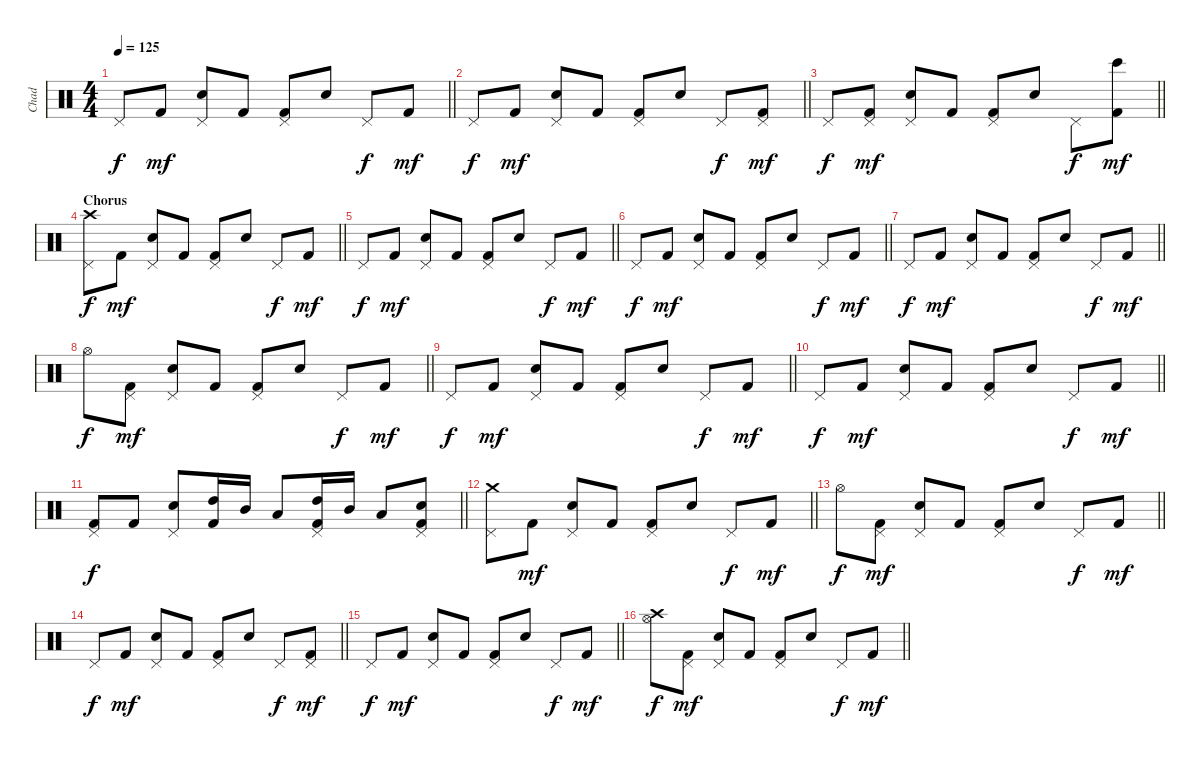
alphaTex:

\track ("Chad" "Chad") {instrument percussion}
\staff {score}
\articulation defaults
\ts (4 4)
\tempo 125
\clef neutral
\barLineRight lightlight
\ks c "Pedal Hi-Hat (hit)".8{dy f} "Kick (hit) 2".8{dy mf}
("Electric Snare (hit)" "Pedal Hi-Hat (hit)").8 "Kick (hit) 2".8 ("Kick (hit) 2" "Pedal Hi-Hat (hit)").8 "Electric Snare (hit)".8 "Pedal Hi-Hat (hit)".8{dy f} "Kick (hit) 2".8{dy mf} |
\barLineRight lightlight "Pedal Hi-Hat (hit)".8{dy f} "Kick (hit) 2".8{dy mf}
("Electric Snare (hit)" "Pedal Hi-Hat (hit)").8 "Kick (hit) 2".8 ("Kick (hit) 2" "Pedal Hi-Hat (hit)").8 "Electric Snare (hit)".8 "Pedal Hi-Hat (hit)".8{dy f} ("Kick (hit) 2" "Pedal Hi-Hat (hit)").8{dy mf} |
\barLineRight lightlight "Pedal Hi-Hat (hit)".8{dy f}
("Kick (hit) 2" "Pedal Hi-Hat (hit)").8{dy mf} ("Electric Snare (hit)" "Pedal Hi-Hat (hit)").8 "Kick (hit) 2".8 ("Kick (hit) 2" "Pedal Hi-Hat (hit)").8 "Electric Snare (hit)".8 "Pedal Hi-Hat (hit)".8{dy f} ("Bongo High (hit)" "Kick (hit) 2").8{dy mf} |
\section ("" "Chorus")
\barLineRight lightlight
("Crash high (hit)" "Pedal Hi-Hat (hit)").8{dy f} "Kick (hit) 2".8{dy mf} ("Electric Snare (hit)" "Pedal Hi-Hat (hit)").8 "Kick (hit) 2".8 ("Kick (hit) 2" "Pedal Hi-Hat (hit)").8 "Electric Snare (hit)".8 "Pedal Hi-Hat (hit)".8{dy f} "Kick (hit) 2".8{dy mf} |
\barLineRight lightlight "Pedal Hi-Hat (hit)".8{dy f} "Kick (hit) 2".8{dy mf}
("Electric Snare (hit)" "Pedal Hi-Hat (hit)").8 "Kick (hit) 2".8 ("Kick (hit) 2" "Pedal Hi-Hat (hit)").8 "Electric Snare (hit)".8 "Pedal Hi-Hat (hit)".8{dy f} "Kick (hit) 2".8{dy mf} |
\barLineRight lightlight "Pedal Hi-Hat (hit)".8{dy f} "Kick (hit) 2".8{dy mf}
("Electric Snare (hit)" "Pedal Hi-Hat (hit)").8 "Kick (hit) 2".8 ("Kick (hit) 2" "Pedal Hi-Hat (hit)").8 "Electric Snare (hit)".8 "Pedal Hi-Hat (hit)".8{dy f} "Kick (hit) 2".8{dy mf} |
\barLineRight lightlight "Pedal Hi-Hat (hit)".8{dy f} "Kick (hit) 2".8{dy mf}
("Electric Snare (hit)" "Pedal Hi-Hat (hit)").8 "Kick (hit) 2".8 ("Kick (hit) 2" "Pedal Hi-Hat (hit)").8 "Electric Snare (hit)".8 "Pedal Hi-Hat (hit)".8{dy f} "Kick (hit) 2".8{dy mf} |
\barLineRight lightlight "Hi-Hat (open)".8{dy f}
("Kick (hit) 2" "Pedal Hi-Hat (hit)").8{dy mf} ("Electric Snare (hit)" "Pedal Hi-Hat (hit)").8 "Kick (hit) 2".8 ("Kick (hit) 2" "Pedal Hi-Hat (hit)").8 "Electric Snare (hit)".8 "Pedal Hi-Hat (hit)".8{dy f} "Kick (hit) 2".8{dy mf} |
\barLineRight lightlight "Pedal Hi-Hat (hit)".8{dy f} "Kick (hit) 2".8{dy mf}
("Electric Snare (hit)" "Pedal Hi-Hat (hit)").8 "Kick (hit) 2".8 ("Kick (hit) 2" "Pedal Hi-Hat (hit)").8 "Electric Snare (hit)".8 "Pedal Hi-Hat (hit)".8{dy f} "Kick (hit) 2".8{dy mf} |
\barLineRight lightlight "Pedal Hi-Hat (hit)".8{dy f} "Kick (hit) 2".8{dy mf}
("Electric Snare (hit)" "Pedal Hi-Hat (hit)").8 "Kick (hit) 2".8 ("Kick (hit) 2" "Pedal Hi-Hat (hit)").8 "Electric Snare (hit)".8 "Pedal Hi-Hat (hit)".8{dy f} "Kick (hit) 2".8{dy mf} |
\barLineRight lightlight
("Kick (hit) 2" "Pedal Hi-Hat (hit)").8{dy f} "Kick (hit) 2".8 ("Electric Snare (hit)" "Pedal Hi-Hat (hit)").8 ("Kick (hit) 2" "High Tom (hit)").16 "Mid Tom (hit)".16 "Low Tom (hit)".8 ("Kick (hit) 2" "Pedal Hi-Hat (hit)" "High Tom (hit)").16 "Mid Tom (hit)".16 "Low Tom (hit)".8 ("Snare (hit) 2" "Kick (hit) 2" "Pedal Hi-Hat (hit)").8 |
\barLineRight lightlight
("Crash medium (hit)" "Pedal Hi-Hat (hit)").8 "Kick (hit) 2".8{dy mf} ("Electric Snare (hit)" "Pedal Hi-Hat (hit)").8 "Kick (hit) 2".8 ("Kick (hit) 2" "Pedal Hi-Hat (hit)").8 "Electric Snare (hit)".8 "Pedal Hi-Hat (hit)".8{dy f} "Kick (hit) 2".8{dy mf} |
\barLineRight lightlight "Hi-Hat (open)".8{dy f}
("Kick (hit) 2" "Pedal Hi-Hat (hit)").8{dy mf} ("Electric Snare (hit)" "Pedal Hi-Hat (hit)").8 "Kick (hit) 2".8 ("Kick (hit) 2" "Pedal Hi-Hat (hit)").8 "Electric Snare (hit)".8 "Pedal Hi-Hat (hit)".8{dy f} "Kick (hit) 2".8{dy mf} |
\barLineRight lightlight "Pedal Hi-Hat (hit)".8{dy f} "Kick (hit) 2".8{dy mf}
("Electric Snare (hit)" "Pedal Hi-Hat (hit)").8 "Kick (hit) 2".8 ("Kick (hit) 2" "Pedal Hi-Hat (hit)").8 "Electric Snare (hit)".8 "Pedal Hi-Hat (hit)".8{dy f} ("Kick (hit) 2" "Pedal Hi-Hat (hit)").8{dy mf} |
\barLineRight lightlight "Pedal Hi-Hat (hit)".8{dy f} "Kick (hit) 2".8{dy mf}
("Electric Snare (hit)" "Pedal Hi-Hat (hit)").8 "Kick (hit) 2".8 ("Kick (hit) 2" "Pedal Hi-Hat (hit)").8 "Electric Snare (hit)".8 "Pedal Hi-Hat (hit)".8{dy f} "Kick (hit) 2".8{dy mf} |
\barLineRight lightlight
("Crash high (hit)" "Hi-Hat (open)").8{dy f} ("Kick (hit) 2" "Pedal Hi-Hat (hit)").8{dy mf} ("Electric Snare (hit)" "Pedal Hi-Hat (hit)").8 "Kick (hit) 2".8 ("Kick (hit) 2" "Pedal Hi-Hat (hit)").8 "Electric Snare (hit)".8 "Pedal Hi-Hat (hit)".8{dy f} "Kick (hit) 2".8{dy mf}
